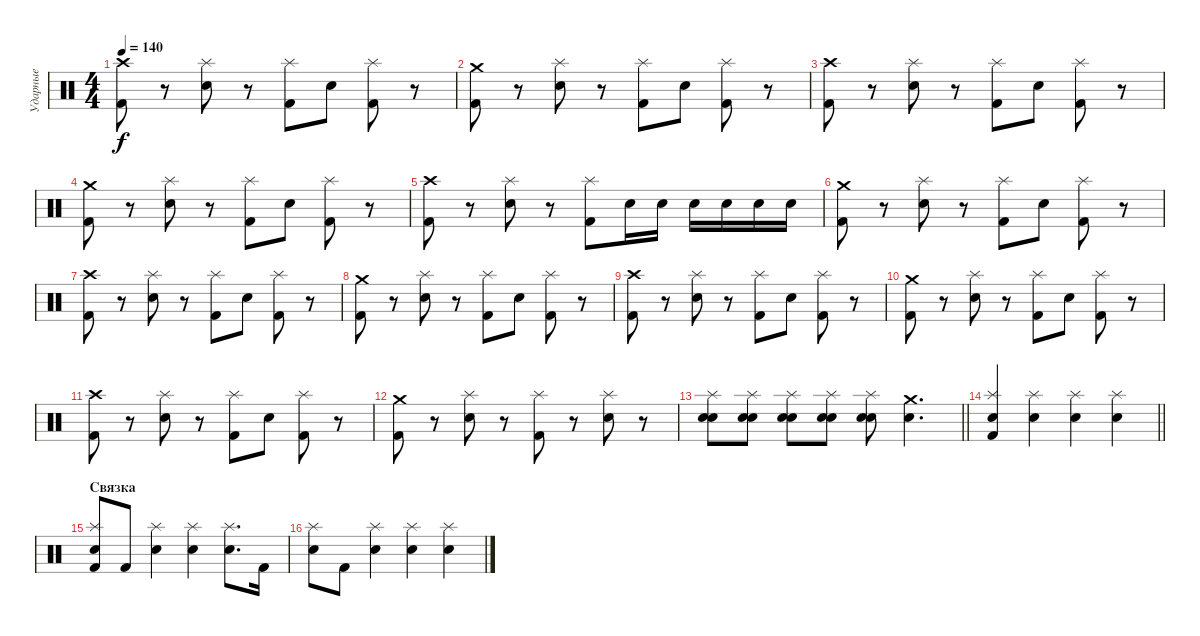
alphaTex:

\track ("Ударные" "Ударные") {instrument percussion}
\staff {score}
\articulation defaults
\ts (4 4)
\tempo 140
\clef neutral
\ks c
("Crash high (hit)" "Kick (hit) 2").8{dy f} r.8 ("Splash (hit)" "Electric Snare (hit)").8 r.8 ("Splash (hit)" "Kick (hit) 2").8 "Electric Snare (hit)".8 ("Splash (hit)" "Kick (hit) 2").8 r.8 |
("Crash medium (hit)" "Kick (hit) 2").8 r.8 ("Splash (hit)" "Electric Snare (hit)").8 r.8 ("Splash (hit)" "Kick (hit) 2").8 "Electric Snare (hit)".8 ("Splash (hit)" "Kick (hit) 2").8 r.8 |
("Crash high (hit)" "Kick (hit) 2").8 r.8 ("Splash (hit)" "Electric Snare (hit)").8 r.8 ("Splash (hit)" "Kick (hit) 2").8 "Electric Snare (hit)".8 ("Splash (hit)" "Kick (hit) 2").8 r.8 |
("Crash medium (hit)" "Kick (hit) 2").8 r.8 ("Splash (hit)" "Electric Snare (hit)").8 r.8 ("Splash (hit)" "Kick (hit) 2").8 "Electric Snare (hit)".8 ("Splash (hit)" "Kick (hit) 2").8 r.8 |
("Crash high (hit)" "Kick (hit) 2").8 r.8 ("Splash (hit)" "Electric Snare (hit)").8 r.8 ("Splash (hit)" "Kick (hit) 2").8 "Electric Snare (hit)".16 "Electric Snare (hit)".16 "Electric Snare (hit)".16 "Electric Snare (hit)".16 "Electric Snare (hit)".16 "Electric Snare (hit)".16 |
("Crash medium (hit)" "Kick (hit) 2").8 r.8 ("Splash (hit)" "Electric Snare (hit)").8 r.8 ("Splash (hit)" "Kick (hit) 2").8 "Electric Snare (hit)".8 ("Splash (hit)" "Kick (hit) 2").8 r.8 |
("Crash high (hit)" "Kick (hit) 2").8 r.8 ("Splash (hit)" "Electric Snare (hit)").8 r.8 ("Splash (hit)" "Kick (hit) 2").8 "Electric Snare (hit)".8 ("Splash (hit)" "Kick (hit) 2").8 r.8 |
("Crash medium (hit)" "Kick (hit) 2").8 r.8 ("Splash (hit)" "Electric Snare (hit)").8 r.8 ("Splash (hit)" "Kick (hit) 2").8 "Electric Snare (hit)".8 ("Splash (hit)" "Kick (hit) 2").8 r.8 |
("Crash high (hit)" "Kick (hit) 2").8 r.8 ("Splash (hit)" "Electric Snare (hit)").8 r.8 ("Splash (hit)" "Kick (hit) 2").8 "Electric Snare (hit)".8 ("Splash (hit)" "Kick (hit) 2").8 r.8 |
("Crash medium (hit)" "Kick (hit) 2").8 r.8 ("Splash (hit)" "Electric Snare (hit)").8 r.8 ("Splash (hit)" "Kick (hit) 2").8 "Electric Snare (hit)".8 ("Splash (hit)" "Kick (hit) 2").8 r.8 |
("Crash high (hit)" "Kick (hit) 2").8 r.8 ("Splash (hit)" "Electric Snare (hit)").8 r.8 ("Splash (hit)" "Kick (hit) 2").8 "Electric Snare (hit)".8 ("Splash (hit)" "Kick (hit) 2").8 r.8 |
("Crash medium (hit)" "Kick (hit) 2").8 r.8 ("Splash (hit)" "Electric Snare (hit)").8 r.8 ("Splash (hit)" "Kick (hit) 2").8 r.8 ("Splash (hit)" "Electric Snare (hit)").8 r.8 |
\barLineRight lightlight
("Splash (hit)" "Electric Snare (hit)" "Snare (hit) 2").8 ("Splash (hit)" "Electric Snare (hit)" "Snare (hit) 2").8 ("Splash (hit)" "Electric Snare (hit)" "Snare (hit) 2").8 ("Splash (hit)" "Electric Snare (hit)" "Snare (hit) 2").8 ("Splash (hit)" "Electric Snare (hit)" "Snare (hit) 2").8 ("Crash medium (hit)" "Electric Snare (hit)").4{d} |
\barLineRight lightlight
("Splash (hit)" "Electric Snare (hit)" "Kick (hit) 2").4 ("Splash (hit)" "Electric Snare (hit)").4 ("Splash (hit)" "Electric Snare (hit)").4 ("Splash (hit)" "Electric Snare (hit)").4 |
\section ("" "Связка")
("Splash (hit)" "Electric Snare (hit)" "Kick (hit) 2").8 "Kick (hit) 2".8 ("Splash (hit)" "Electric Snare (hit)").4 ("Splash (hit)" "Electric Snare (hit)").4 ("Splash (hit)" "Electric Snare (hit)").8{d} "Kick (hit) 2".16 |
("Splash (hit)" "Electric Snare (hit)").8 "Kick (hit) 2".8 ("Splash (hit)" "Electric Snare (hit)").4 ("Splash (hit)" "Electric Snare (hit)").4 ("Splash (hit)" "Electric Snare (hit)").4
